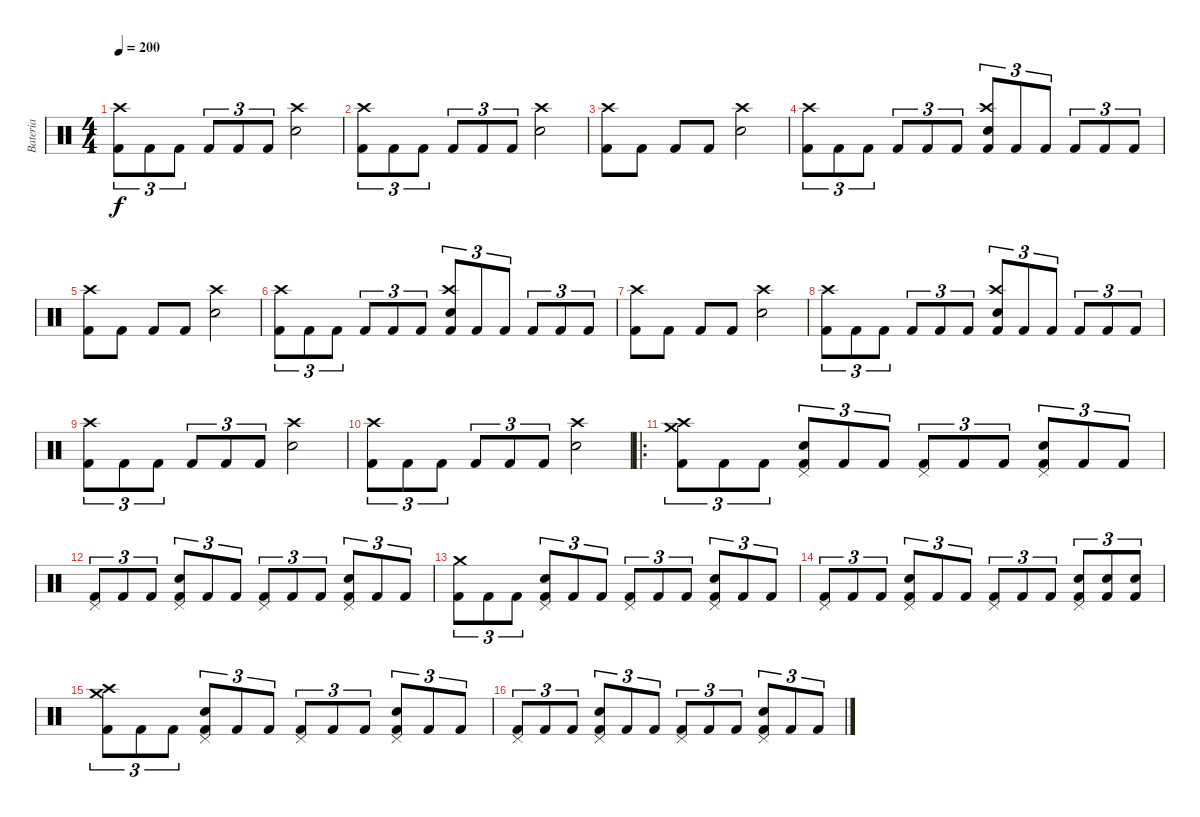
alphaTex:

\track ("Bateria " "Bateria ") {instrument percussion}
\staff {score}
\articulation defaults
\ts (4 4)
\tempo 200
\clef neutral
\ks c
("Kick (hit) 2" "Crash high (hit)").8{tu (3 2) dy f} "Kick (hit) 2".8{tu (3 2)} "Kick (hit) 2".8{tu (3 2)} "Kick (hit) 2".8{tu (3 2)} "Kick (hit) 2".8{tu (3 2)} "Kick (hit) 2".8{tu (3 2)} ("Electric Snare (hit)" "Crash high (hit)").2 |
("Kick (hit) 2" "Crash high (hit)").8{tu (3 2)} "Kick (hit) 2".8{tu (3 2)} "Kick (hit) 2".8{tu (3 2)} "Kick (hit) 2".8{tu (3 2)} "Kick (hit) 2".8{tu (3 2)} "Kick (hit) 2".8{tu (3 2)} ("Electric Snare (hit)" "Crash high (hit)").2 |
("Kick (hit) 2" "Crash high (hit)").8 "Kick (hit) 2".8 "Kick (hit) 2".8 "Kick (hit) 2".8 ("Electric Snare (hit)" "Crash high (hit)").2 |
("Kick (hit) 2" "Crash high (hit)").8{tu (3 2)} "Kick (hit) 2".8{tu (3 2)} "Kick (hit) 2".8{tu (3 2)} "Kick (hit) 2".8{tu (3 2)} "Kick (hit) 2".8{tu (3 2)} "Kick (hit) 2".8{tu (3 2)} ("Kick (hit) 2" "Electric Snare (hit)" "Crash high (hit)").8{tu (3 2)} "Kick (hit) 2".8{tu (3 2)} "Kick (hit) 2".8{tu (3 2)} "Kick (hit) 2".8{tu (3 2)} "Kick (hit) 2".8{tu (3 2)} "Kick (hit) 2".8{tu (3 2)} |
("Kick (hit) 2" "Crash high (hit)").8 "Kick (hit) 2".8 "Kick (hit) 2".8 "Kick (hit) 2".8 ("Electric Snare (hit)" "Crash high (hit)").2 |
("Kick (hit) 2" "Crash high (hit)").8{tu (3 2)} "Kick (hit) 2".8{tu (3 2)} "Kick (hit) 2".8{tu (3 2)} "Kick (hit) 2".8{tu (3 2)} "Kick (hit) 2".8{tu (3 2)} "Kick (hit) 2".8{tu (3 2)} ("Kick (hit) 2" "Electric Snare (hit)" "Crash high (hit)").8{tu (3 2)} "Kick (hit) 2".8{tu (3 2)} "Kick (hit) 2".8{tu (3 2)} "Kick (hit) 2".8{tu (3 2)} "Kick (hit) 2".8{tu (3 2)} "Kick (hit) 2".8{tu (3 2)} |
("Kick (hit) 2" "Crash high (hit)").8 "Kick (hit) 2".8 "Kick (hit) 2".8 "Kick (hit) 2".8 ("Electric Snare (hit)" "Crash high (hit)").2 |
("Kick (hit) 2" "Crash high (hit)").8{tu (3 2)} "Kick (hit) 2".8{tu (3 2)} "Kick (hit) 2".8{tu (3 2)} "Kick (hit) 2".8{tu (3 2)} "Kick (hit) 2".8{tu (3 2)} "Kick (hit) 2".8{tu (3 2)} ("Kick (hit) 2" "Electric Snare (hit)" "Crash high (hit)").8{tu (3 2)} "Kick (hit) 2".8{tu (3 2)} "Kick (hit) 2".8{tu (3 2)} "Kick (hit) 2".8{tu (3 2)} "Kick (hit) 2".8{tu (3 2)} "Kick (hit) 2".8{tu (3 2)} |
("Kick (hit) 2" "Crash high (hit)").8{tu (3 2)} "Kick (hit) 2".8{tu (3 2)} "Kick (hit) 2".8{tu (3 2)} "Kick (hit) 2".8{tu (3 2)} "Kick (hit) 2".8{tu (3 2)} "Kick (hit) 2".8{tu (3 2)} ("Electric Snare (hit)" "Crash high (hit)").2 |
("Kick (hit) 2" "Crash high (hit)").8{tu (3 2)} "Kick (hit) 2".8{tu (3 2)} "Kick (hit) 2".8{tu (3 2)} "Kick (hit) 2".8{tu (3 2)} "Kick (hit) 2".8{tu (3 2)} "Kick (hit) 2".8{tu (3 2)} ("Electric Snare (hit)" "Crash high (hit)").2 |
\ro
("Kick (hit) 2" "Crash high (hit)" "Crash medium (hit)").8{tu (3 2)} "Kick (hit) 2".8{tu (3 2)} "Kick (hit) 2".8{tu (3 2)} ("Kick (hit) 2" "Electric Snare (hit)" "Pedal Hi-Hat (hit)").8{tu (3 2)} "Kick (hit) 2".8{tu (3 2)} "Kick (hit) 2".8{tu (3 2)} ("Kick (hit) 2" "Pedal Hi-Hat (hit)").8{tu (3 2)} "Kick (hit) 2".8{tu (3 2)} "Kick (hit) 2".8{tu (3 2)} ("Kick (hit) 2" "Electric Snare (hit)" "Pedal Hi-Hat (hit)").8{tu (3 2)} "Kick (hit) 2".8{tu (3 2)} "Kick (hit) 2".8{tu (3 2)} |
("Kick (hit) 2" "Pedal Hi-Hat (hit)").8{tu (3 2)} "Kick (hit) 2".8{tu (3 2)} "Kick (hit) 2".8{tu (3 2)} ("Kick (hit) 2" "Electric Snare (hit)" "Pedal Hi-Hat (hit)").8{tu (3 2)} "Kick (hit) 2".8{tu (3 2)} "Kick (hit) 2".8{tu (3 2)} ("Kick (hit) 2" "Pedal Hi-Hat (hit)").8{tu (3 2)} "Kick (hit) 2".8{tu (3 2)} "Kick (hit) 2".8{tu (3 2)} ("Kick (hit) 2" "Electric Snare (hit)" "Pedal Hi-Hat (hit)").8{tu (3 2)} "Kick (hit) 2".8{tu (3 2)} "Kick (hit) 2".8{tu (3 2)} |
("Kick (hit) 2" "Crash medium (hit)").8{tu (3 2)} "Kick (hit) 2".8{tu (3 2)} "Kick (hit) 2".8{tu (3 2)} ("Kick (hit) 2" "Electric Snare (hit)" "Pedal Hi-Hat (hit)").8{tu (3 2)} "Kick (hit) 2".8{tu (3 2)} "Kick (hit) 2".8{tu (3 2)} ("Kick (hit) 2" "Pedal Hi-Hat (hit)").8{tu (3 2)} "Kick (hit) 2".8{tu (3 2)} "Kick (hit) 2".8{tu (3 2)} ("Kick (hit) 2" "Electric Snare (hit)" "Pedal Hi-Hat (hit)").8{tu (3 2)} "Kick (hit) 2".8{tu (3 2)} "Kick (hit) 2".8{tu (3 2)} |
("Kick (hit) 2" "Pedal Hi-Hat (hit)").8{tu (3 2)} "Kick (hit) 2".8{tu (3 2)} "Kick (hit) 2".8{tu (3 2)} ("Kick (hit) 2" "Electric Snare (hit)" "Pedal Hi-Hat (hit)").8{tu (3 2)} "Kick (hit) 2".8{tu (3 2)} "Kick (hit) 2".8{tu (3 2)} ("Kick (hit) 2" "Pedal Hi-Hat (hit)").8{tu (3 2)} "Kick (hit) 2".8{tu (3 2)} "Kick (hit) 2".8{tu (3 2)} ("Kick (hit) 2" "Electric Snare (hit)" "Pedal Hi-Hat (hit)").8{tu (3 2)} ("Kick (hit) 2" "Electric Snare (hit)").8{tu (3 2)} ("Kick (hit) 2" "Electric Snare (hit)").8{tu (3 2)} |
("Kick (hit) 2" "Crash high (hit)" "Crash medium (hit)").8{tu (3 2)} "Kick (hit) 2".8{tu (3 2)} "Kick (hit) 2".8{tu (3 2)} ("Kick (hit) 2" "Electric Snare (hit)" "Pedal Hi-Hat (hit)").8{tu (3 2)} "Kick (hit) 2".8{tu (3 2)} "Kick (hit) 2".8{tu (3 2)} ("Kick (hit) 2" "Pedal Hi-Hat (hit)").8{tu (3 2)} "Kick (hit) 2".8{tu (3 2)} "Kick (hit) 2".8{tu (3 2)} ("Kick (hit) 2" "Electric Snare (hit)" "Pedal Hi-Hat (hit)").8{tu (3 2)} "Kick (hit) 2".8{tu (3 2)} "Kick (hit) 2".8{tu (3 2)} |
("Kick (hit) 2" "Pedal Hi-Hat (hit)").8{tu (3 2)} "Kick (hit) 2".8{tu (3 2)} "Kick (hit) 2".8{tu (3 2)} ("Kick (hit) 2" "Electric Snare (hit)" "Pedal Hi-Hat (hit)").8{tu (3 2)} "Kick (hit) 2".8{tu (3 2)} "Kick (hit) 2".8{tu (3 2)} ("Kick (hit) 2" "Pedal Hi-Hat (hit)").8{tu (3 2)} "Kick (hit) 2".8{tu (3 2)} "Kick (hit) 2".8{tu (3 2)} ("Kick (hit) 2" "Electric Snare (hit)" "Pedal Hi-Hat (hit)").8{tu (3 2)} "Kick (hit) 2".8{tu (3 2)} "Kick (hit) 2".8{tu (3 2)}
